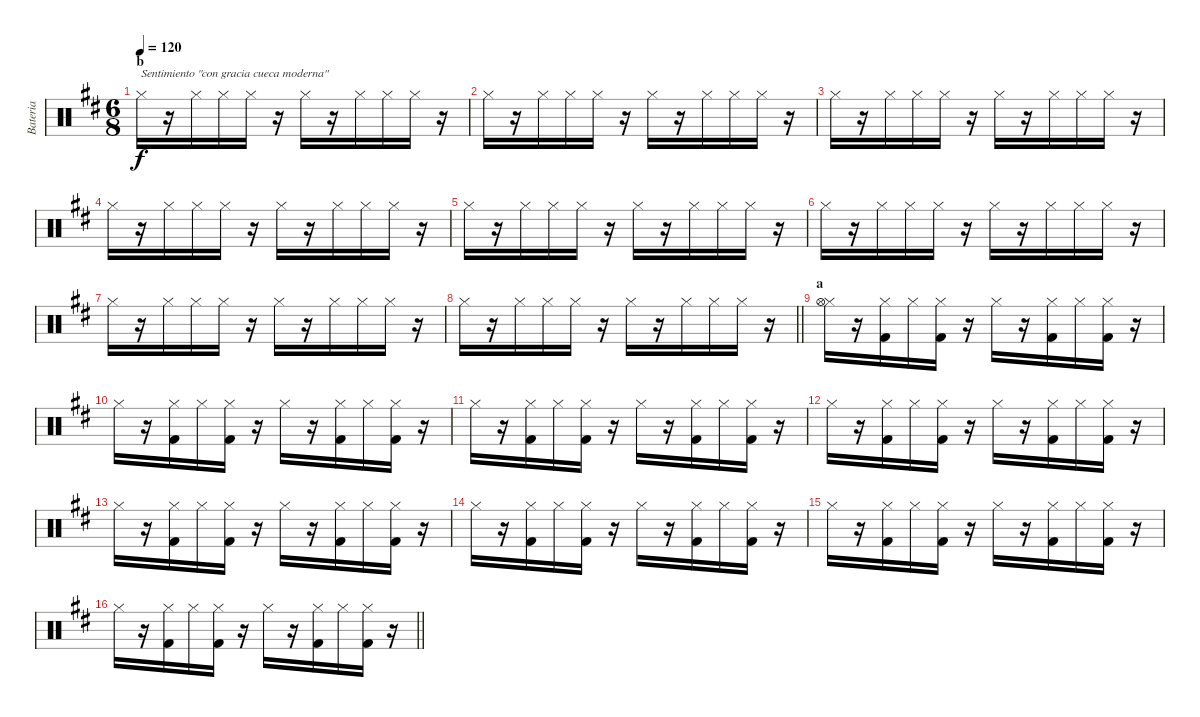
\track ("Bateria" "Bateria") {instrument percussion}
\staff {score}
\articulation defaults
\ts (6 8)
\section ("" "b")
\tempo 120
\clef neutral
\ks d "Hi-Hat (closed)".16{txt "Sentimiento \"con gracia cueca moderna\"" dy f}
r.16 "Hi-Hat (closed)".16 "Hi-Hat (closed)".16 "Hi-Hat (closed)".16 r.16 "Hi-Hat (closed)".16 r.16 "Hi-Hat (closed)".16 "Hi-Hat (closed)".16 "Hi-Hat (closed)".16 r.16 |
"Hi-Hat (closed)".16 r.16 "Hi-Hat (closed)".16 "Hi-Hat (closed)".16 "Hi-Hat (closed)".16 r.16 "Hi-Hat (closed)".16 r.16 "Hi-Hat (closed)".16 "Hi-Hat (closed)".16 "Hi-Hat (closed)".16 r.16 |
"Hi-Hat (closed)".16 r.16 "Hi-Hat (closed)".16 "Hi-Hat (closed)".16 "Hi-Hat (closed)".16 r.16 "Hi-Hat (closed)".16 r.16 "Hi-Hat (closed)".16 "Hi-Hat (closed)".16 "Hi-Hat (closed)".16 r.16 |
"Hi-Hat (closed)".16 r.16 "Hi-Hat (closed)".16 "Hi-Hat (closed)".16 "Hi-Hat (closed)".16 r.16 "Hi-Hat (closed)".16 r.16 "Hi-Hat (closed)".16 "Hi-Hat (closed)".16 "Hi-Hat (closed)".16 r.16 |
"Hi-Hat (closed)".16 r.16 "Hi-Hat (closed)".16 "Hi-Hat (closed)".16 "Hi-Hat (closed)".16 r.16 "Hi-Hat (closed)".16 r.16 "Hi-Hat (closed)".16 "Hi-Hat (closed)".16 "Hi-Hat (closed)".16 r.16 |
"Hi-Hat (closed)".16 r.16 "Hi-Hat (closed)".16 "Hi-Hat (closed)".16 "Hi-Hat (closed)".16 r.16 "Hi-Hat (closed)".16 r.16 "Hi-Hat (closed)".16 "Hi-Hat (closed)".16 "Hi-Hat (closed)".16 r.16 |
"Hi-Hat (closed)".16 r.16 "Hi-Hat (closed)".16 "Hi-Hat (closed)".16 "Hi-Hat (closed)".16 r.16 "Hi-Hat (closed)".16 r.16 "Hi-Hat (closed)".16 "Hi-Hat (closed)".16 "Hi-Hat (closed)".16 r.16 |
\barLineRight lightlight "Hi-Hat (closed)".16
r.16 "Hi-Hat (closed)".16 "Hi-Hat (closed)".16 "Hi-Hat (closed)".16 r.16 "Hi-Hat (closed)".16 r.16 "Hi-Hat (closed)".16 "Hi-Hat (closed)".16 "Hi-Hat (closed)".16 r.16 |
\section ("" "a")
("Hi-Hat (closed)" "Hi-Hat (open)").16 r.16 ("Hi-Hat (closed)" "Kick (hit) 2").16 "Hi-Hat (closed)".16 ("Hi-Hat (closed)" "Kick (hit) 2").16 r.16 "Hi-Hat (closed)".16 r.16 ("Hi-Hat (closed)" "Kick (hit) 2").16 "Hi-Hat (closed)".16 ("Hi-Hat (closed)" "Kick (hit) 2").16 r.16 |
"Hi-Hat (closed)".16 r.16 ("Hi-Hat (closed)" "Kick (hit) 2").16 "Hi-Hat (closed)".16 ("Hi-Hat (closed)" "Kick (hit) 2").16 r.16 "Hi-Hat (closed)".16 r.16 ("Hi-Hat (closed)" "Kick (hit) 2").16 "Hi-Hat (closed)".16 ("Hi-Hat (closed)" "Kick (hit) 2").16 r.16 |
"Hi-Hat (closed)".16 r.16 ("Hi-Hat (closed)" "Kick (hit) 2").16 "Hi-Hat (closed)".16 ("Hi-Hat (closed)" "Kick (hit) 2").16 r.16 "Hi-Hat (closed)".16 r.16 ("Hi-Hat (closed)" "Kick (hit) 2").16 "Hi-Hat (closed)".16 ("Hi-Hat (closed)" "Kick (hit) 2").16 r.16 |
"Hi-Hat (closed)".16 r.16 ("Hi-Hat (closed)" "Kick (hit) 2").16 "Hi-Hat (closed)".16 ("Hi-Hat (closed)" "Kick (hit) 2").16 r.16 "Hi-Hat (closed)".16 r.16 ("Hi-Hat (closed)" "Kick (hit) 2").16 "Hi-Hat (closed)".16 ("Hi-Hat (closed)" "Kick (hit) 2").16 r.16 |
"Hi-Hat (closed)".16 r.16 ("Hi-Hat (closed)" "Kick (hit) 2").16 "Hi-Hat (closed)".16 ("Hi-Hat (closed)" "Kick (hit) 2").16 r.16 "Hi-Hat (closed)".16 r.16 ("Hi-Hat (closed)" "Kick (hit) 2").16 "Hi-Hat (closed)".16 ("Hi-Hat (closed)" "Kick (hit) 2").16 r.16 |
"Hi-Hat (closed)".16 r.16 ("Hi-Hat (closed)" "Kick (hit) 2").16 "Hi-Hat (closed)".16 ("Hi-Hat (closed)" "Kick (hit) 2").16 r.16 "Hi-Hat (closed)".16 r.16 ("Hi-Hat (closed)" "Kick (hit) 2").16 "Hi-Hat (closed)".16 ("Hi-Hat (closed)" "Kick (hit) 2").16 r.16 |
"Hi-Hat (closed)".16 r.16 ("Hi-Hat (closed)" "Kick (hit) 2").16 "Hi-Hat (closed)".16 ("Hi-Hat (closed)" "Kick (hit) 2").16 r.16 "Hi-Hat (closed)".16 r.16 ("Hi-Hat (closed)" "Kick (hit) 2").16 "Hi-Hat (closed)".16 ("Hi-Hat (closed)" "Kick (hit) 2").16 r.16 |
\barLineRight lightlight "Hi-Hat (closed)".16
r.16 ("Hi-Hat (closed)" "Kick (hit) 2").16 "Hi-Hat (closed)".16 ("Hi-Hat (closed)" "Kick (hit) 2").16 r.16 "Hi-Hat (closed)".16 r.16 ("Hi-Hat (closed)" "Kick (hit) 2").16 "Hi-Hat (closed)".16 ("Hi-Hat (closed)" "Kick (hit) 2").16 r.16
